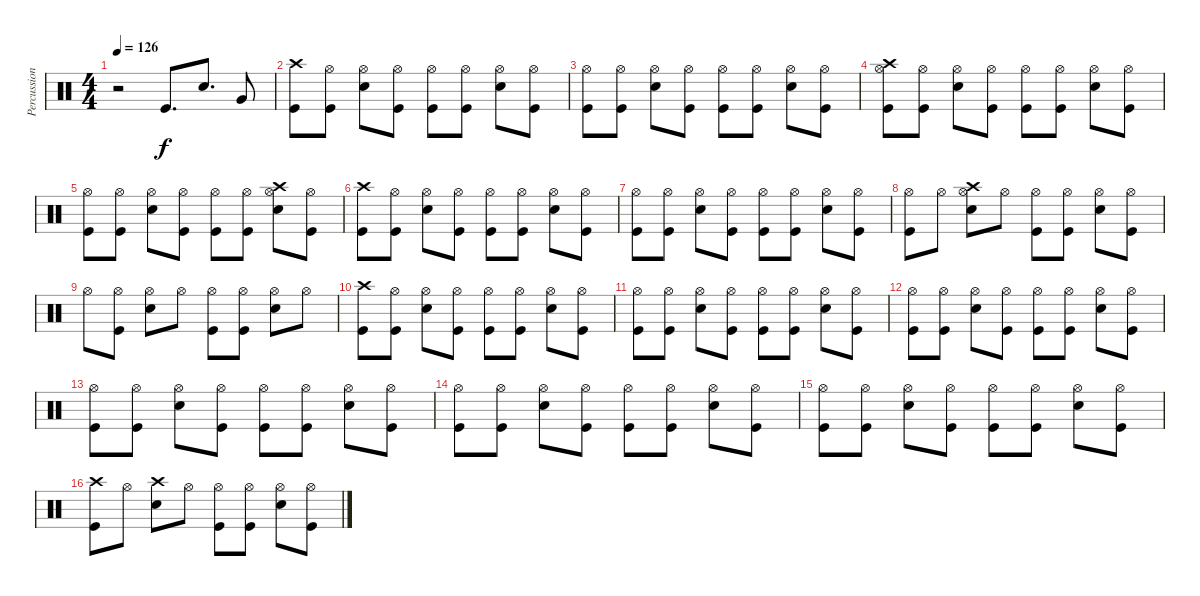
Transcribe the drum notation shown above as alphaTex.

\track ("Percussion" "Percussion") {instrument percussion}
\staff {score}
\articulation defaults
\ts (4 4)
\tempo 126
\clef neutral
\ks c
r.2{dy f} "Kick (hit)".8{d} "Electric Snare (hit)".8{d} "Very Low Tom (hit)".8 |
("Crash high (hit)" "Kick (hit)").8 ("Kick (hit)" "Hi-Hat (open)").8 ("Electric Snare (hit)" "Hi-Hat (open)").8 ("Kick (hit)" "Hi-Hat (open)").8 ("Kick (hit)" "Hi-Hat (open)").8 ("Kick (hit)" "Hi-Hat (open)").8 ("Electric Snare (hit)" "Hi-Hat (open)").8 ("Kick (hit)" "Hi-Hat (open)").8 |
("Kick (hit)" "Hi-Hat (open)").8 ("Kick (hit)" "Hi-Hat (open)").8 ("Electric Snare (hit)" "Hi-Hat (open)").8 ("Kick (hit)" "Hi-Hat (open)").8 ("Kick (hit)" "Hi-Hat (open)").8 ("Kick (hit)" "Hi-Hat (open)").8 ("Electric Snare (hit)" "Hi-Hat (open)").8 ("Kick (hit)" "Hi-Hat (open)").8 |
("Crash high (hit)" "Kick (hit)" "Hi-Hat (open)").8 ("Kick (hit)" "Hi-Hat (open)").8 ("Electric Snare (hit)" "Hi-Hat (open)").8 ("Kick (hit)" "Hi-Hat (open)").8 ("Kick (hit)" "Hi-Hat (open)").8 ("Kick (hit)" "Hi-Hat (open)").8 ("Electric Snare (hit)" "Hi-Hat (open)").8 ("Kick (hit)" "Hi-Hat (open)").8 |
("Kick (hit)" "Hi-Hat (open)").8 ("Kick (hit)" "Hi-Hat (open)").8 ("Electric Snare (hit)" "Hi-Hat (open)").8 ("Kick (hit)" "Hi-Hat (open)").8 ("Kick (hit)" "Hi-Hat (open)").8 ("Kick (hit)" "Hi-Hat (open)").8 ("Crash high (hit)" "Electric Snare (hit)" "Hi-Hat (open)").8 ("Kick (hit)" "Hi-Hat (open)").8 |
("Crash high (hit)" "Kick (hit)").8 ("Kick (hit)" "Hi-Hat (open)").8 ("Electric Snare (hit)" "Hi-Hat (open)").8 ("Kick (hit)" "Hi-Hat (open)").8 ("Kick (hit)" "Hi-Hat (open)").8 ("Kick (hit)" "Hi-Hat (open)").8 ("Electric Snare (hit)" "Hi-Hat (open)").8 ("Kick (hit)" "Hi-Hat (open)").8 |
("Kick (hit)" "Hi-Hat (open)").8 ("Kick (hit)" "Hi-Hat (open)").8 ("Electric Snare (hit)" "Hi-Hat (open)").8 ("Kick (hit)" "Hi-Hat (open)").8 ("Kick (hit)" "Hi-Hat (open)").8 ("Kick (hit)" "Hi-Hat (open)").8 ("Electric Snare (hit)" "Hi-Hat (open)").8 ("Hi-Hat (open)" "Kick (hit)").8 |
("Hi-Hat (open)" "Kick (hit)").8 "Hi-Hat (open)".8 ("Hi-Hat (open)" "Crash high (hit)" "Electric Snare (hit)").8 "Hi-Hat (open)".8 ("Hi-Hat (open)" "Kick (hit)").8 ("Hi-Hat (open)" "Kick (hit)").8 ("Hi-Hat (open)" "Electric Snare (hit)").8 ("Hi-Hat (open)" "Kick (hit)").8 |
"Hi-Hat (open)".8 ("Hi-Hat (open)" "Kick (hit)").8 ("Hi-Hat (open)" "Electric Snare (hit)").8 "Hi-Hat (open)".8 ("Hi-Hat (open)" "Kick (hit)").8 ("Hi-Hat (open)" "Kick (hit)").8 ("Hi-Hat (open)" "Electric Snare (hit)").8 "Hi-Hat (open)".8 |
("Kick (hit)" "Crash high (hit)").8 ("Kick (hit)" "Hi-Hat (open)").8 ("Electric Snare (hit)" "Hi-Hat (open)").8 ("Kick (hit)" "Hi-Hat (open)").8 ("Kick (hit)" "Hi-Hat (open)").8 ("Kick (hit)" "Hi-Hat (open)").8 ("Electric Snare (hit)" "Hi-Hat (open)").8 ("Kick (hit)" "Hi-Hat (open)").8 |
("Kick (hit)" "Hi-Hat (open)").8 ("Kick (hit)" "Hi-Hat (open)").8 ("Electric Snare (hit)" "Hi-Hat (open)").8 ("Kick (hit)" "Hi-Hat (open)").8 ("Kick (hit)" "Hi-Hat (open)").8 ("Kick (hit)" "Hi-Hat (open)").8 ("Electric Snare (hit)" "Hi-Hat (open)").8 ("Kick (hit)" "Hi-Hat (open)").8 |
("Kick (hit)" "Hi-Hat (open)").8 ("Kick (hit)" "Hi-Hat (open)").8 ("Electric Snare (hit)" "Hi-Hat (open)").8 ("Kick (hit)" "Hi-Hat (open)").8 ("Kick (hit)" "Hi-Hat (open)").8 ("Kick (hit)" "Hi-Hat (open)").8 ("Electric Snare (hit)" "Hi-Hat (open)").8 ("Kick (hit)" "Hi-Hat (open)").8 |
("Kick (hit)" "Hi-Hat (open)").8 ("Kick (hit)" "Hi-Hat (open)").8 ("Electric Snare (hit)" "Hi-Hat (open)").8 ("Kick (hit)" "Hi-Hat (open)").8 ("Kick (hit)" "Hi-Hat (open)").8 ("Kick (hit)" "Hi-Hat (open)").8 ("Electric Snare (hit)" "Hi-Hat (open)").8 ("Kick (hit)" "Hi-Hat (open)").8 |
("Kick (hit)" "Hi-Hat (open)").8 ("Kick (hit)" "Hi-Hat (open)").8 ("Electric Snare (hit)" "Hi-Hat (open)").8 ("Kick (hit)" "Hi-Hat (open)").8 ("Kick (hit)" "Hi-Hat (open)").8 ("Kick (hit)" "Hi-Hat (open)").8 ("Electric Snare (hit)" "Hi-Hat (open)").8 ("Kick (hit)" "Hi-Hat (open)").8 |
("Kick (hit)" "Hi-Hat (open)").8 ("Kick (hit)" "Hi-Hat (open)").8 ("Electric Snare (hit)" "Hi-Hat (open)").8 ("Kick (hit)" "Hi-Hat (open)").8 ("Kick (hit)" "Hi-Hat (open)").8 ("Kick (hit)" "Hi-Hat (open)").8 ("Electric Snare (hit)" "Hi-Hat (open)").8 ("Kick (hit)" "Hi-Hat (open)").8 |
("Crash high (hit)" "Kick (hit)").8 "Hi-Hat (open)".8 ("Crash high (hit)" "Electric Snare (hit)").8 "Hi-Hat (open)".8 ("Hi-Hat (open)" "Kick (hit)").8 ("Hi-Hat (open)" "Kick (hit)").8 ("Hi-Hat (open)" "Electric Snare (hit)").8 ("Kick (hit)" "Hi-Hat (open)").8
